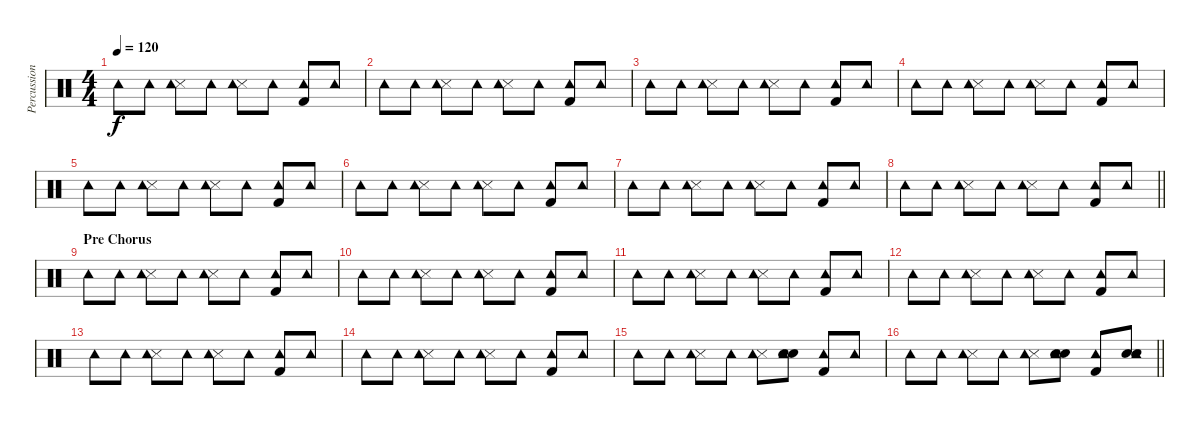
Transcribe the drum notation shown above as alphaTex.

\track ("Percussion" "Percussion") {instrument percussion}
\staff {score}
\articulation defaults
\ts (4 4)
\tempo 120
\clef neutral
\ks c "Tambourine (hit)".8{dy f} "Tambourine (hit)".8
("Snare (side stick) 3" "Tambourine (hit)").8 "Tambourine (hit)".8 ("Snare (side stick) 3" "Tambourine (hit)").8 "Tambourine (hit)".8 ("Kick (hit) 2" "Tambourine (hit)").8 "Tambourine (hit)".8 |
"Tambourine (hit)".8 "Tambourine (hit)".8 ("Snare (side stick) 3" "Tambourine (hit)").8 "Tambourine (hit)".8 ("Snare (side stick) 3" "Tambourine (hit)").8 "Tambourine (hit)".8 ("Kick (hit) 2" "Tambourine (hit)").8 "Tambourine (hit)".8 |
"Tambourine (hit)".8 "Tambourine (hit)".8 ("Snare (side stick) 3" "Tambourine (hit)").8 "Tambourine (hit)".8 ("Snare (side stick) 3" "Tambourine (hit)").8 "Tambourine (hit)".8 ("Kick (hit) 2" "Tambourine (hit)").8 "Tambourine (hit)".8 |
"Tambourine (hit)".8 "Tambourine (hit)".8 ("Snare (side stick) 3" "Tambourine (hit)").8 "Tambourine (hit)".8 ("Snare (side stick) 3" "Tambourine (hit)").8 "Tambourine (hit)".8 ("Kick (hit) 2" "Tambourine (hit)").8 "Tambourine (hit)".8 |
"Tambourine (hit)".8 "Tambourine (hit)".8 ("Snare (side stick) 3" "Tambourine (hit)").8 "Tambourine (hit)".8 ("Snare (side stick) 3" "Tambourine (hit)").8 "Tambourine (hit)".8 ("Kick (hit) 2" "Tambourine (hit)").8 "Tambourine (hit)".8 |
"Tambourine (hit)".8 "Tambourine (hit)".8 ("Snare (side stick) 3" "Tambourine (hit)").8 "Tambourine (hit)".8 ("Snare (side stick) 3" "Tambourine (hit)").8 "Tambourine (hit)".8 ("Kick (hit) 2" "Tambourine (hit)").8 "Tambourine (hit)".8 |
"Tambourine (hit)".8 "Tambourine (hit)".8 ("Snare (side stick) 3" "Tambourine (hit)").8 "Tambourine (hit)".8 ("Snare (side stick) 3" "Tambourine (hit)").8 "Tambourine (hit)".8 ("Kick (hit) 2" "Tambourine (hit)").8 "Tambourine (hit)".8 |
\barLineRight lightlight "Tambourine (hit)".8 "Tambourine (hit)".8
("Snare (side stick) 3" "Tambourine (hit)").8 "Tambourine (hit)".8 ("Snare (side stick) 3" "Tambourine (hit)").8 "Tambourine (hit)".8 ("Kick (hit) 2" "Tambourine (hit)").8 "Tambourine (hit)".8 |
\section ("" "Pre Chorus")
"Tambourine (hit)".8 "Tambourine (hit)".8 ("Snare (side stick) 3" "Tambourine (hit)").8 "Tambourine (hit)".8 ("Snare (side stick) 3" "Tambourine (hit)").8 "Tambourine (hit)".8 ("Kick (hit) 2" "Tambourine (hit)").8 "Tambourine (hit)".8 |
"Tambourine (hit)".8 "Tambourine (hit)".8 ("Snare (side stick) 3" "Tambourine (hit)").8 "Tambourine (hit)".8 ("Snare (side stick) 3" "Tambourine (hit)").8 "Tambourine (hit)".8 ("Kick (hit) 2" "Tambourine (hit)").8 "Tambourine (hit)".8 |
"Tambourine (hit)".8 "Tambourine (hit)".8 ("Snare (side stick) 3" "Tambourine (hit)").8 "Tambourine (hit)".8 ("Snare (side stick) 3" "Tambourine (hit)").8 "Tambourine (hit)".8 ("Kick (hit) 2" "Tambourine (hit)").8 "Tambourine (hit)".8 |
"Tambourine (hit)".8 "Tambourine (hit)".8 ("Snare (side stick) 3" "Tambourine (hit)").8 "Tambourine (hit)".8 ("Snare (side stick) 3" "Tambourine (hit)").8 "Tambourine (hit)".8 ("Kick (hit) 2" "Tambourine (hit)").8 "Tambourine (hit)".8 |
"Tambourine (hit)".8 "Tambourine (hit)".8 ("Snare (side stick) 3" "Tambourine (hit)").8 "Tambourine (hit)".8 ("Snare (side stick) 3" "Tambourine (hit)").8 "Tambourine (hit)".8 ("Kick (hit) 2" "Tambourine (hit)").8 "Tambourine (hit)".8 |
"Tambourine (hit)".8 "Tambourine (hit)".8 ("Snare (side stick) 3" "Tambourine (hit)").8 "Tambourine (hit)".8 ("Snare (side stick) 3" "Tambourine (hit)").8 "Tambourine (hit)".8 ("Kick (hit) 2" "Tambourine (hit)").8 "Tambourine (hit)".8 |
"Tambourine (hit)".8 "Tambourine (hit)".8 ("Snare (side stick) 3" "Tambourine (hit)").8 "Tambourine (hit)".8 ("Snare (side stick) 3" "Tambourine (hit)").8 ("Snare (hit) 2" "Snare (hit) 2" "Tambourine (hit)").8 ("Kick (hit) 2" "Tambourine (hit)").8 "Tambourine (hit)".8 |
\barLineRight lightlight "Tambourine (hit)".8 "Tambourine (hit)".8
("Snare (side stick) 3" "Tambourine (hit)").8 "Tambourine (hit)".8 ("Snare (side stick) 3" "Tambourine (hit)").8 ("Snare (hit) 2" "Snare (hit) 2" "Tambourine (hit)").8 ("Kick (hit) 2" "Tambourine (hit)").8 ("Snare (hit) 2" "Snare (hit) 2" "Tambourine (hit)").8
